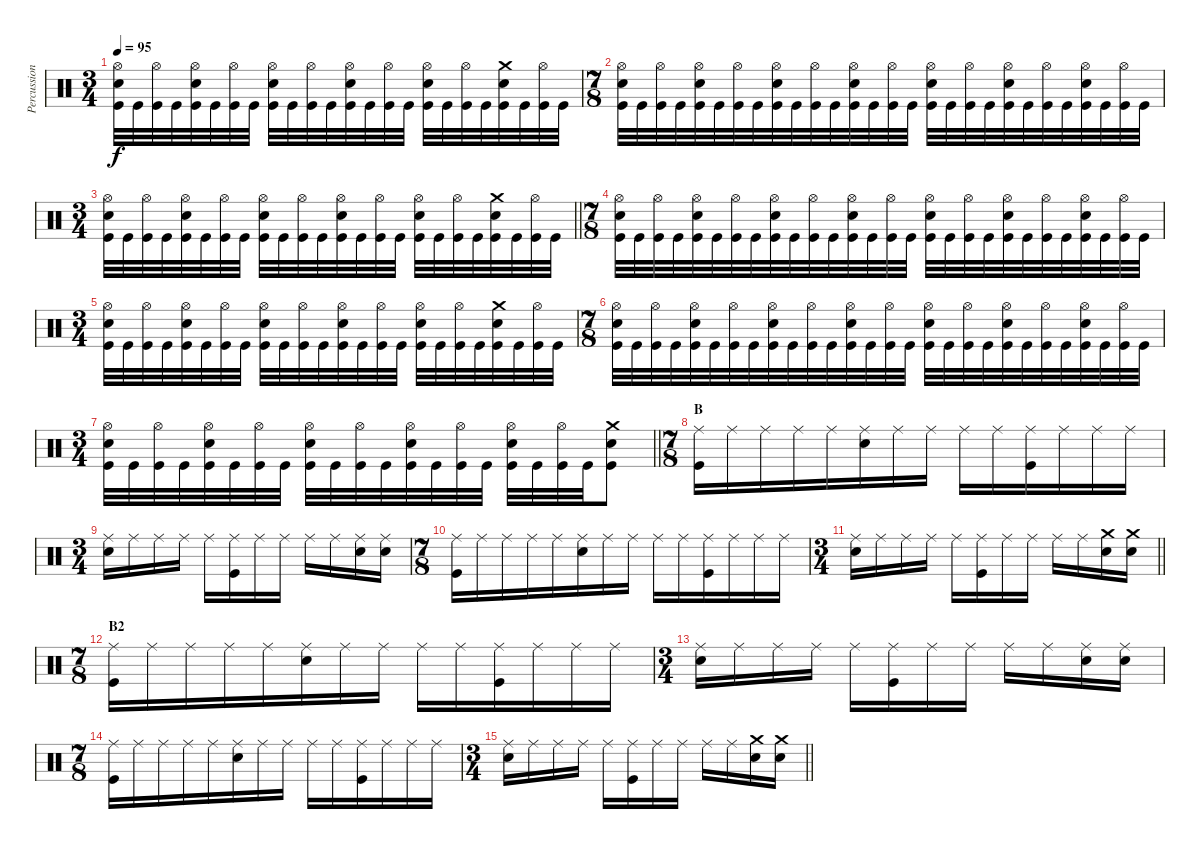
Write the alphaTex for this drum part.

\track ("Percussion" "Percussion") {instrument percussion}
\staff {score}
\articulation defaults
\ts (3 4)
\tempo 95
\clef neutral
\ks c
("Kick (hit)" "Snare (hit) 2" "Hi-Hat (open)").32{dy f} "Kick (hit)".32 ("Kick (hit)" "Hi-Hat (open)").32 "Kick (hit)".32 ("Kick (hit)" "Snare (hit) 2" "Hi-Hat (open)").32 "Kick (hit)".32 ("Kick (hit)" "Hi-Hat (open)").32 "Kick (hit)".32 ("Kick (hit)" "Snare (hit) 2" "Hi-Hat (open)").32 "Kick (hit)".32 ("Kick (hit)" "Hi-Hat (open)").32 "Kick (hit)".32 ("Kick (hit)" "Snare (hit) 2" "Hi-Hat (open)").32 "Kick (hit)".32 ("Kick (hit)" "Hi-Hat (open)").32 "Kick (hit)".32 ("Kick (hit)" "Snare (hit) 2" "Hi-Hat (open)").32 "Kick (hit)".32 ("Kick (hit)" "Hi-Hat (open)").32 "Kick (hit)".32 ("Kick (hit)" "Snare (hit) 2" "Crash medium (hit)").32 "Kick (hit)".32 ("Kick (hit)" "Hi-Hat (open)").32 "Kick (hit)".32 |
\ts (7 8)
("Kick (hit)" "Snare (hit) 2" "Hi-Hat (open)").32 "Kick (hit)".32 ("Kick (hit)" "Hi-Hat (open)").32 "Kick (hit)".32 ("Kick (hit)" "Snare (hit) 2" "Hi-Hat (open)").32 "Kick (hit)".32 ("Kick (hit)" "Hi-Hat (open)").32 "Kick (hit)".32 ("Kick (hit)" "Snare (hit) 2" "Hi-Hat (open)").32 "Kick (hit)".32 ("Kick (hit)" "Hi-Hat (open)").32 "Kick (hit)".32 ("Kick (hit)" "Snare (hit) 2" "Hi-Hat (open)").32 "Kick (hit)".32 ("Kick (hit)" "Hi-Hat (open)").32 "Kick (hit)".32 ("Kick (hit)" "Snare (hit) 2" "Hi-Hat (open)").32 "Kick (hit)".32 ("Kick (hit)" "Hi-Hat (open)").32 "Kick (hit)".32 ("Kick (hit)" "Snare (hit) 2" "Hi-Hat (open)").32 "Kick (hit)".32 ("Kick (hit)" "Hi-Hat (open)").32 "Kick (hit)".32 ("Kick (hit)" "Snare (hit) 2" "Hi-Hat (open)").32 "Kick (hit)".32 ("Kick (hit)" "Hi-Hat (open)").32 "Kick (hit)".32 |
\ts (3 4)
\barLineRight lightlight
("Kick (hit)" "Snare (hit) 2" "Hi-Hat (open)").32 "Kick (hit)".32 ("Kick (hit)" "Hi-Hat (open)").32 "Kick (hit)".32 ("Kick (hit)" "Snare (hit) 2" "Hi-Hat (open)").32 "Kick (hit)".32 ("Kick (hit)" "Hi-Hat (open)").32 "Kick (hit)".32 ("Kick (hit)" "Snare (hit) 2" "Hi-Hat (open)").32 "Kick (hit)".32 ("Kick (hit)" "Hi-Hat (open)").32 "Kick (hit)".32 ("Kick (hit)" "Snare (hit) 2" "Hi-Hat (open)").32 "Kick (hit)".32 ("Kick (hit)" "Hi-Hat (open)").32 "Kick (hit)".32 ("Kick (hit)" "Snare (hit) 2" "Hi-Hat (open)").32 "Kick (hit)".32 ("Kick (hit)" "Hi-Hat (open)").32 "Kick (hit)".32 ("Kick (hit)" "Snare (hit) 2" "Crash medium (hit)").32 "Kick (hit)".32 ("Kick (hit)" "Hi-Hat (open)").32 "Kick (hit)".32 |
\ts (7 8)
("Kick (hit)" "Snare (hit) 2" "Hi-Hat (open)").32 "Kick (hit)".32 ("Kick (hit)" "Hi-Hat (open)").32 "Kick (hit)".32 ("Kick (hit)" "Snare (hit) 2" "Hi-Hat (open)").32 "Kick (hit)".32 ("Kick (hit)" "Hi-Hat (open)").32 "Kick (hit)".32 ("Kick (hit)" "Snare (hit) 2" "Hi-Hat (open)").32 "Kick (hit)".32 ("Kick (hit)" "Hi-Hat (open)").32 "Kick (hit)".32 ("Kick (hit)" "Snare (hit) 2" "Hi-Hat (open)").32 "Kick (hit)".32 ("Kick (hit)" "Hi-Hat (open)").32 "Kick (hit)".32 ("Kick (hit)" "Snare (hit) 2" "Hi-Hat (open)").32 "Kick (hit)".32 ("Kick (hit)" "Hi-Hat (open)").32 "Kick (hit)".32 ("Kick (hit)" "Snare (hit) 2" "Hi-Hat (open)").32 "Kick (hit)".32 ("Kick (hit)" "Hi-Hat (open)").32 "Kick (hit)".32 ("Kick (hit)" "Snare (hit) 2" "Hi-Hat (open)").32 "Kick (hit)".32 ("Kick (hit)" "Hi-Hat (open)").32 "Kick (hit)".32 |
\ts (3 4)
("Kick (hit)" "Snare (hit) 2" "Hi-Hat (open)").32 "Kick (hit)".32 ("Kick (hit)" "Hi-Hat (open)").32 "Kick (hit)".32 ("Kick (hit)" "Snare (hit) 2" "Hi-Hat (open)").32 "Kick (hit)".32 ("Kick (hit)" "Hi-Hat (open)").32 "Kick (hit)".32 ("Kick (hit)" "Snare (hit) 2" "Hi-Hat (open)").32 "Kick (hit)".32 ("Kick (hit)" "Hi-Hat (open)").32 "Kick (hit)".32 ("Kick (hit)" "Snare (hit) 2" "Hi-Hat (open)").32 "Kick (hit)".32 ("Kick (hit)" "Hi-Hat (open)").32 "Kick (hit)".32 ("Kick (hit)" "Snare (hit) 2" "Hi-Hat (open)").32 "Kick (hit)".32 ("Kick (hit)" "Hi-Hat (open)").32 "Kick (hit)".32 ("Kick (hit)" "Snare (hit) 2" "Crash medium (hit)").32 "Kick (hit)".32 ("Kick (hit)" "Hi-Hat (open)").32 "Kick (hit)".32 |
\ts (7 8)
("Kick (hit)" "Snare (hit) 2" "Hi-Hat (open)").32 "Kick (hit)".32 ("Kick (hit)" "Hi-Hat (open)").32 "Kick (hit)".32 ("Kick (hit)" "Snare (hit) 2" "Hi-Hat (open)").32 "Kick (hit)".32 ("Kick (hit)" "Hi-Hat (open)").32 "Kick (hit)".32 ("Kick (hit)" "Snare (hit) 2" "Hi-Hat (open)").32 "Kick (hit)".32 ("Kick (hit)" "Hi-Hat (open)").32 "Kick (hit)".32 ("Kick (hit)" "Snare (hit) 2" "Hi-Hat (open)").32 "Kick (hit)".32 ("Kick (hit)" "Hi-Hat (open)").32 "Kick (hit)".32 ("Kick (hit)" "Snare (hit) 2" "Hi-Hat (open)").32 "Kick (hit)".32 ("Kick (hit)" "Hi-Hat (open)").32 "Kick (hit)".32 ("Kick (hit)" "Snare (hit) 2" "Hi-Hat (open)").32 "Kick (hit)".32 ("Kick (hit)" "Hi-Hat (open)").32 "Kick (hit)".32 ("Kick (hit)" "Snare (hit) 2" "Hi-Hat (open)").32 "Kick (hit)".32 ("Kick (hit)" "Hi-Hat (open)").32 "Kick (hit)".32 |
\ts (3 4)
\barLineRight lightlight
("Kick (hit)" "Snare (hit) 2" "Hi-Hat (open)").32 "Kick (hit)".32 ("Kick (hit)" "Hi-Hat (open)").32 "Kick (hit)".32 ("Kick (hit)" "Snare (hit) 2" "Hi-Hat (open)").32 "Kick (hit)".32 ("Kick (hit)" "Hi-Hat (open)").32 "Kick (hit)".32 ("Kick (hit)" "Snare (hit) 2" "Hi-Hat (open)").32 "Kick (hit)".32 ("Kick (hit)" "Hi-Hat (open)").32 "Kick (hit)".32 ("Kick (hit)" "Snare (hit) 2" "Hi-Hat (open)").32 "Kick (hit)".32 ("Kick (hit)" "Hi-Hat (open)").32 "Kick (hit)".32 ("Kick (hit)" "Snare (hit) 2" "Hi-Hat (open)").32 "Kick (hit)".32 ("Kick (hit)" "Hi-Hat (open)").32 "Kick (hit)".32 ("Kick (hit)" "Snare (hit) 2" "Crash medium (hit)").8 |
\ts (7 8)
\section ("" "B")
("Kick (hit)" "Ride (middle)").16 "Ride (middle)".16 "Ride (middle)".16 "Ride (middle)".16 "Ride (middle)".16 ("Snare (hit) 2" "Ride (middle)").16 "Ride (middle)".16 "Ride (middle)".16 "Ride (middle)".16 "Ride (middle)".16 ("Kick (hit)" "Ride (middle)").16 "Ride (middle)".16 "Ride (middle)".16 "Ride (middle)".16 |
\ts (3 4)
("Snare (hit) 2" "Ride (middle)").16 "Ride (middle)".16 "Ride (middle)".16 "Ride (middle)".16 "Ride (middle)".16 ("Kick (hit)" "Ride (middle)").16 "Ride (middle)".16 "Ride (middle)".16 "Ride (middle)".16 "Ride (middle)".16 ("Snare (hit) 2" "Ride (middle)").16 ("Snare (hit) 2" "Ride (middle)").16 |
\ts (7 8)
("Kick (hit)" "Ride (middle)").16 "Ride (middle)".16 "Ride (middle)".16 "Ride (middle)".16 "Ride (middle)".16 ("Snare (hit) 2" "Ride (middle)").16 "Ride (middle)".16 "Ride (middle)".16 "Ride (middle)".16 "Ride (middle)".16 ("Kick (hit)" "Ride (middle)").16 "Ride (middle)".16 "Ride (middle)".16 "Ride (middle)".16 |
\ts (3 4)
\barLineRight lightlight
("Snare (hit) 2" "Ride (middle)").16 "Ride (middle)".16 "Ride (middle)".16 "Ride (middle)".16 "Ride (middle)".16 ("Kick (hit)" "Ride (middle)").16 "Ride (middle)".16 "Ride (middle)".16 "Ride (middle)".16 "Ride (middle)".16 ("Snare (hit) 2" "Crash medium (hit)").16 ("Snare (hit) 2" "Crash medium (hit)").16 |
\ts (7 8)
\section ("" "B2")
("Kick (hit)" "Ride (middle)").16 "Ride (middle)".16 "Ride (middle)".16 "Ride (middle)".16 "Ride (middle)".16 ("Snare (hit) 2" "Ride (middle)").16 "Ride (middle)".16 "Ride (middle)".16 "Ride (middle)".16 "Ride (middle)".16 ("Kick (hit)" "Ride (middle)").16 "Ride (middle)".16 "Ride (middle)".16 "Ride (middle)".16 |
\ts (3 4)
("Snare (hit) 2" "Ride (middle)").16 "Ride (middle)".16 "Ride (middle)".16 "Ride (middle)".16 "Ride (middle)".16 ("Kick (hit)" "Ride (middle)").16 "Ride (middle)".16 "Ride (middle)".16 "Ride (middle)".16 "Ride (middle)".16 ("Snare (hit) 2" "Ride (middle)").16 ("Snare (hit) 2" "Ride (middle)").16 |
\ts (7 8)
("Kick (hit)" "Ride (middle)").16 "Ride (middle)".16 "Ride (middle)".16 "Ride (middle)".16 "Ride (middle)".16 ("Snare (hit) 2" "Ride (middle)").16 "Ride (middle)".16 "Ride (middle)".16 "Ride (middle)".16 "Ride (middle)".16 ("Kick (hit)" "Ride (middle)").16 "Ride (middle)".16 "Ride (middle)".16 "Ride (middle)".16 |
\ts (3 4)
\barLineRight lightlight
("Snare (hit) 2" "Ride (middle)").16 "Ride (middle)".16 "Ride (middle)".16 "Ride (middle)".16 "Ride (middle)".16 ("Kick (hit)" "Ride (middle)").16 "Ride (middle)".16 "Ride (middle)".16 "Ride (middle)".16 "Ride (middle)".16 ("Snare (hit) 2" "Crash medium (hit)").16 ("Snare (hit) 2" "Crash medium (hit)").16
